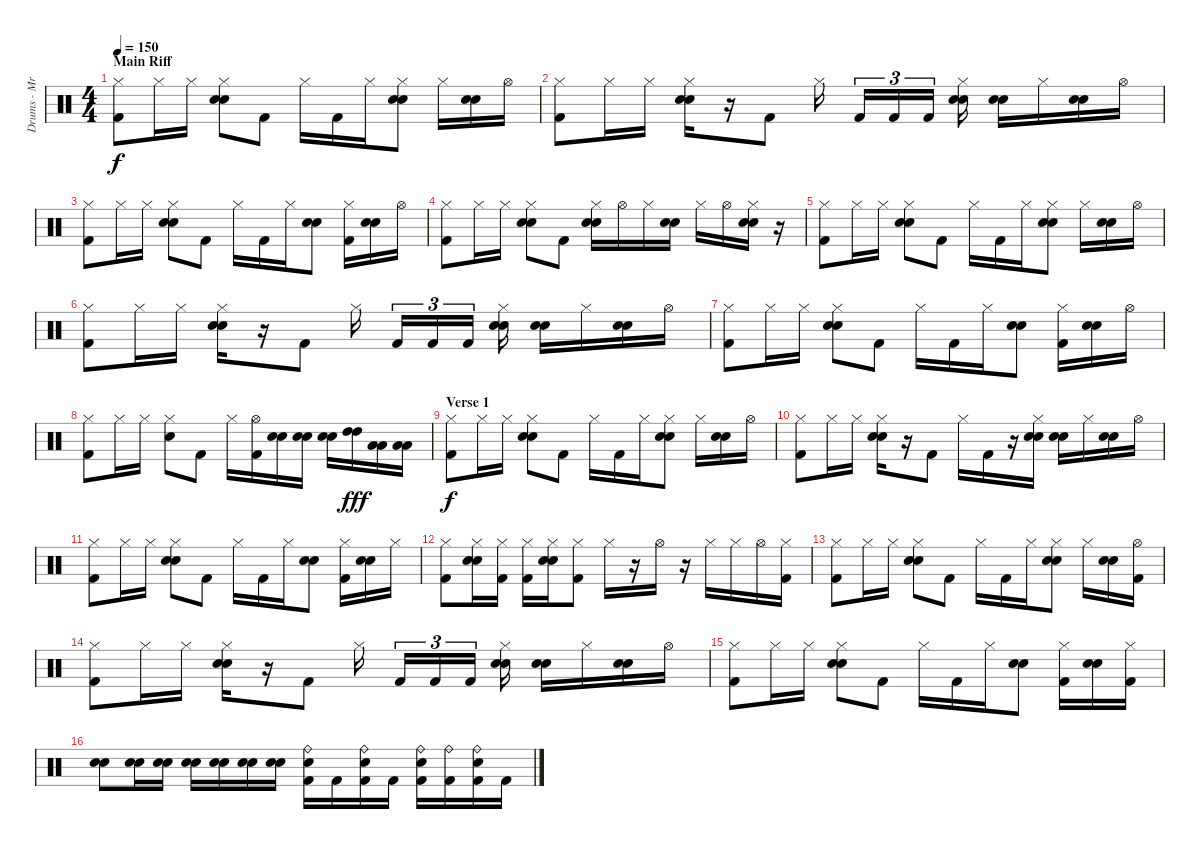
\track ("Drums - Mr. Beller, Thomas" "Drums - Mr") {instrument percussion}
\staff {score}
\articulation defaults
\ts (4 4)
\section ("" "Main Riff")
\tempo 150
\clef neutral
\ks c
("Hi-Hat (closed)" "Kick (hit) 2").8{dy f} "Hi-Hat (closed)".16 "Hi-Hat (closed)".16 ("Hi-Hat (closed)" "Electric Snare (hit)" "Electric Snare (hit)").8 "Kick (hit) 2".8 "Hi-Hat (closed)".16 "Kick (hit) 2".16 "Hi-Hat (closed)".16 ("Hi-Hat (closed)" "Electric Snare (hit)" "Electric Snare (hit)").8 "Hi-Hat (closed)".16 ("Electric Snare (hit)" "Electric Snare (hit)").16 "Hi-Hat (open)".16 |
("Hi-Hat (closed)" "Kick (hit) 2").8 "Hi-Hat (closed)".16 "Hi-Hat (closed)".16 ("Hi-Hat (closed)" "Electric Snare (hit)" "Electric Snare (hit)").16 r.16 "Kick (hit) 2".8 "Hi-Hat (closed)".16 "Kick (hit) 2".16{tu (3 2)} "Kick (hit) 2".16{tu (3 2)} "Kick (hit) 2".16{tu (3 2)} ("Hi-Hat (closed)" "Electric Snare (hit)" "Electric Snare (hit)").16 ("Electric Snare (hit)" "Electric Snare (hit)").16 "Hi-Hat (closed)".16 ("Electric Snare (hit)" "Electric Snare (hit)").16 "Hi-Hat (open)".16 |
("Hi-Hat (closed)" "Kick (hit) 2").8 "Hi-Hat (closed)".16 "Hi-Hat (closed)".16 ("Hi-Hat (closed)" "Electric Snare (hit)" "Electric Snare (hit)").8 "Kick (hit) 2".8 "Hi-Hat (closed)".16 "Kick (hit) 2".16 "Hi-Hat (closed)".16 ("Electric Snare (hit)" "Electric Snare (hit)").8 ("Hi-Hat (closed)" "Kick (hit) 2").16 ("Electric Snare (hit)" "Electric Snare (hit)").16 "Hi-Hat (open)".16 |
("Hi-Hat (closed)" "Kick (hit) 2").8 "Hi-Hat (closed)".16 "Hi-Hat (closed)".16 ("Hi-Hat (closed)" "Electric Snare (hit)" "Electric Snare (hit)").8 "Kick (hit) 2".8 ("Hi-Hat (closed)" "Electric Snare (hit)" "Electric Snare (hit)").16 "Hi-Hat (open)".16 "Hi-Hat (closed)".16 ("Electric Snare (hit)" "Electric Snare (hit)").16 "Hi-Hat (closed)".16 "Hi-Hat (open)".16 ("Hi-Hat (closed)" "Electric Snare (hit)" "Electric Snare (hit)").16 r.16 |
("Hi-Hat (closed)" "Kick (hit) 2").8 "Hi-Hat (closed)".16 "Hi-Hat (closed)".16 ("Hi-Hat (closed)" "Electric Snare (hit)" "Electric Snare (hit)").8 "Kick (hit) 2".8 "Hi-Hat (closed)".16 "Kick (hit) 2".16 "Hi-Hat (closed)".16 ("Hi-Hat (closed)" "Electric Snare (hit)" "Electric Snare (hit)").8 "Hi-Hat (closed)".16 ("Electric Snare (hit)" "Electric Snare (hit)").16 "Hi-Hat (open)".16 |
("Hi-Hat (closed)" "Kick (hit) 2").8 "Hi-Hat (closed)".16 "Hi-Hat (closed)".16 ("Hi-Hat (closed)" "Electric Snare (hit)" "Electric Snare (hit)").16 r.16 "Kick (hit) 2".8 "Hi-Hat (closed)".16 "Kick (hit) 2".16{tu (3 2)} "Kick (hit) 2".16{tu (3 2)} "Kick (hit) 2".16{tu (3 2)} ("Hi-Hat (closed)" "Electric Snare (hit)" "Electric Snare (hit)").16 ("Electric Snare (hit)" "Electric Snare (hit)").16 "Hi-Hat (closed)".16 ("Electric Snare (hit)" "Electric Snare (hit)").16 "Hi-Hat (open)".16 |
("Hi-Hat (closed)" "Kick (hit) 2").8 "Hi-Hat (closed)".16 "Hi-Hat (closed)".16 ("Hi-Hat (closed)" "Electric Snare (hit)" "Electric Snare (hit)").8 "Kick (hit) 2".8 "Hi-Hat (closed)".16 "Kick (hit) 2".16 "Hi-Hat (closed)".16 ("Electric Snare (hit)" "Electric Snare (hit)").8 ("Hi-Hat (closed)" "Kick (hit) 2").16 ("Electric Snare (hit)" "Electric Snare (hit)").16 "Hi-Hat (open)".16 |
("Hi-Hat (closed)" "Kick (hit) 2").8 "Hi-Hat (closed)".16 "Hi-Hat (closed)".16 ("Hi-Hat (closed)" "Electric Snare (hit)").8 "Kick (hit) 2".8 "Hi-Hat (closed)".16 ("Hi-Hat (open)" "Kick (hit) 2").16 ("Electric Snare (hit)" "Electric Snare (hit)").16 ("Electric Snare (hit)" "Electric Snare (hit)").16 ("Electric Snare (hit)" "Electric Snare (hit)").16 ("High Tom (hit)" "High Tom (hit)").16{dy fff} ("Low Tom (hit)" "Low Tom (hit)").16 ("Low Tom (hit)" "Low Tom (hit)").16 |
\section ("" "Verse 1")
("Hi-Hat (closed)" "Kick (hit) 2").8{dy f} "Hi-Hat (closed)".16 "Hi-Hat (closed)".16 ("Hi-Hat (closed)" "Electric Snare (hit)" "Electric Snare (hit)").8 "Kick (hit) 2".8 "Hi-Hat (closed)".16 "Kick (hit) 2".16 "Hi-Hat (closed)".16 ("Hi-Hat (closed)" "Electric Snare (hit)" "Electric Snare (hit)").8 "Hi-Hat (closed)".16 ("Electric Snare (hit)" "Electric Snare (hit)").16 "Hi-Hat (open)".16 |
("Hi-Hat (closed)" "Kick (hit) 2").8 "Hi-Hat (closed)".16 "Hi-Hat (closed)".16 ("Hi-Hat (closed)" "Electric Snare (hit)" "Electric Snare (hit)").16 r.16 "Kick (hit) 2".8 "Hi-Hat (closed)".16 "Kick (hit) 2".16 r.16 ("Hi-Hat (closed)" "Electric Snare (hit)" "Electric Snare (hit)").16 ("Electric Snare (hit)" "Electric Snare (hit)").16 "Hi-Hat (closed)".16 ("Electric Snare (hit)" "Electric Snare (hit)").16 "Hi-Hat (open)".16 |
("Hi-Hat (closed)" "Kick (hit) 2").8 "Hi-Hat (closed)".16 "Hi-Hat (closed)".16 ("Hi-Hat (closed)" "Electric Snare (hit)" "Electric Snare (hit)").8 "Kick (hit) 2".8 "Hi-Hat (closed)".16 "Kick (hit) 2".16 "Hi-Hat (closed)".16 ("Electric Snare (hit)" "Electric Snare (hit)").8 ("Hi-Hat (closed)" "Kick (hit) 2").16 ("Electric Snare (hit)" "Electric Snare (hit)").16 "Hi-Hat (closed)".16 |
("Hi-Hat (closed)" "Kick (hit) 2").8 ("Hi-Hat (closed)" "Electric Snare (hit)" "Electric Snare (hit)").16 ("Hi-Hat (closed)" "Kick (hit) 2").16 ("Hi-Hat (closed)" "Kick (hit) 2").16 ("Hi-Hat (closed)" "Electric Snare (hit)" "Electric Snare (hit)").16 ("Hi-Hat (closed)" "Kick (hit) 2").8 "Hi-Hat (closed)".16 r.16 "Hi-Hat (open)".16 r.16 "Hi-Hat (closed)".16 "Hi-Hat (closed)".16 "Hi-Hat (open)".16 ("Hi-Hat (closed)" "Kick (hit) 2").16 |
("Hi-Hat (closed)" "Kick (hit) 2").8 "Hi-Hat (closed)".16 "Hi-Hat (closed)".16 ("Hi-Hat (closed)" "Electric Snare (hit)" "Electric Snare (hit)").8 "Kick (hit) 2".8 "Hi-Hat (closed)".16 "Kick (hit) 2".16 "Hi-Hat (closed)".16 ("Hi-Hat (closed)" "Electric Snare (hit)" "Electric Snare (hit)").8 "Hi-Hat (closed)".16 ("Electric Snare (hit)" "Electric Snare (hit)").16 ("Hi-Hat (open)" "Kick (hit) 2").16 |
("Hi-Hat (closed)" "Kick (hit) 2").8 "Hi-Hat (closed)".16 "Hi-Hat (closed)".16 ("Hi-Hat (closed)" "Electric Snare (hit)" "Electric Snare (hit)").16 r.16 "Kick (hit) 2".8 "Hi-Hat (closed)".16 "Kick (hit) 2".16{tu (3 2)} "Kick (hit) 2".16{tu (3 2)} "Kick (hit) 2".16{tu (3 2)} ("Hi-Hat (closed)" "Electric Snare (hit)" "Electric Snare (hit)").16 ("Electric Snare (hit)" "Electric Snare (hit)").16 "Hi-Hat (closed)".16 ("Electric Snare (hit)" "Electric Snare (hit)").16 "Hi-Hat (open)".16 |
("Hi-Hat (closed)" "Kick (hit) 2").8 "Hi-Hat (closed)".16 "Hi-Hat (closed)".16 ("Hi-Hat (closed)" "Electric Snare (hit)" "Electric Snare (hit)").8 "Kick (hit) 2".8 "Hi-Hat (closed)".16 "Kick (hit) 2".16 "Hi-Hat (closed)".16 ("Electric Snare (hit)" "Electric Snare (hit)").8 ("Hi-Hat (closed)" "Kick (hit) 2").16 ("Electric Snare (hit)" "Electric Snare (hit)").16 ("Hi-Hat (closed)" "Kick (hit) 2").16 |
("Electric Snare (hit)" "Electric Snare (hit)").8 ("Electric Snare (hit)" "Electric Snare (hit)").16 ("Electric Snare (hit)" "Electric Snare (hit)").16 ("Electric Snare (hit)" "Electric Snare (hit)").16 ("Electric Snare (hit)" "Electric Snare (hit)").16 ("Electric Snare (hit)" "Electric Snare (hit)").16 ("Electric Snare (hit)" "Electric Snare (hit)").16 ("Ride (bell)" "Electric Snare (hit)" "Kick (hit) 2").16 "Kick (hit) 2".16 ("Ride (bell)" "Electric Snare (hit)" "Kick (hit) 2").16 "Kick (hit) 2".16 ("Ride (bell)" "Electric Snare (hit)" "Kick (hit) 2").16 ("Ride (bell)" "Kick (hit) 2").16 ("Ride (bell)" "Electric Snare (hit)" "Kick (hit) 2").16 "Kick (hit) 2".16
